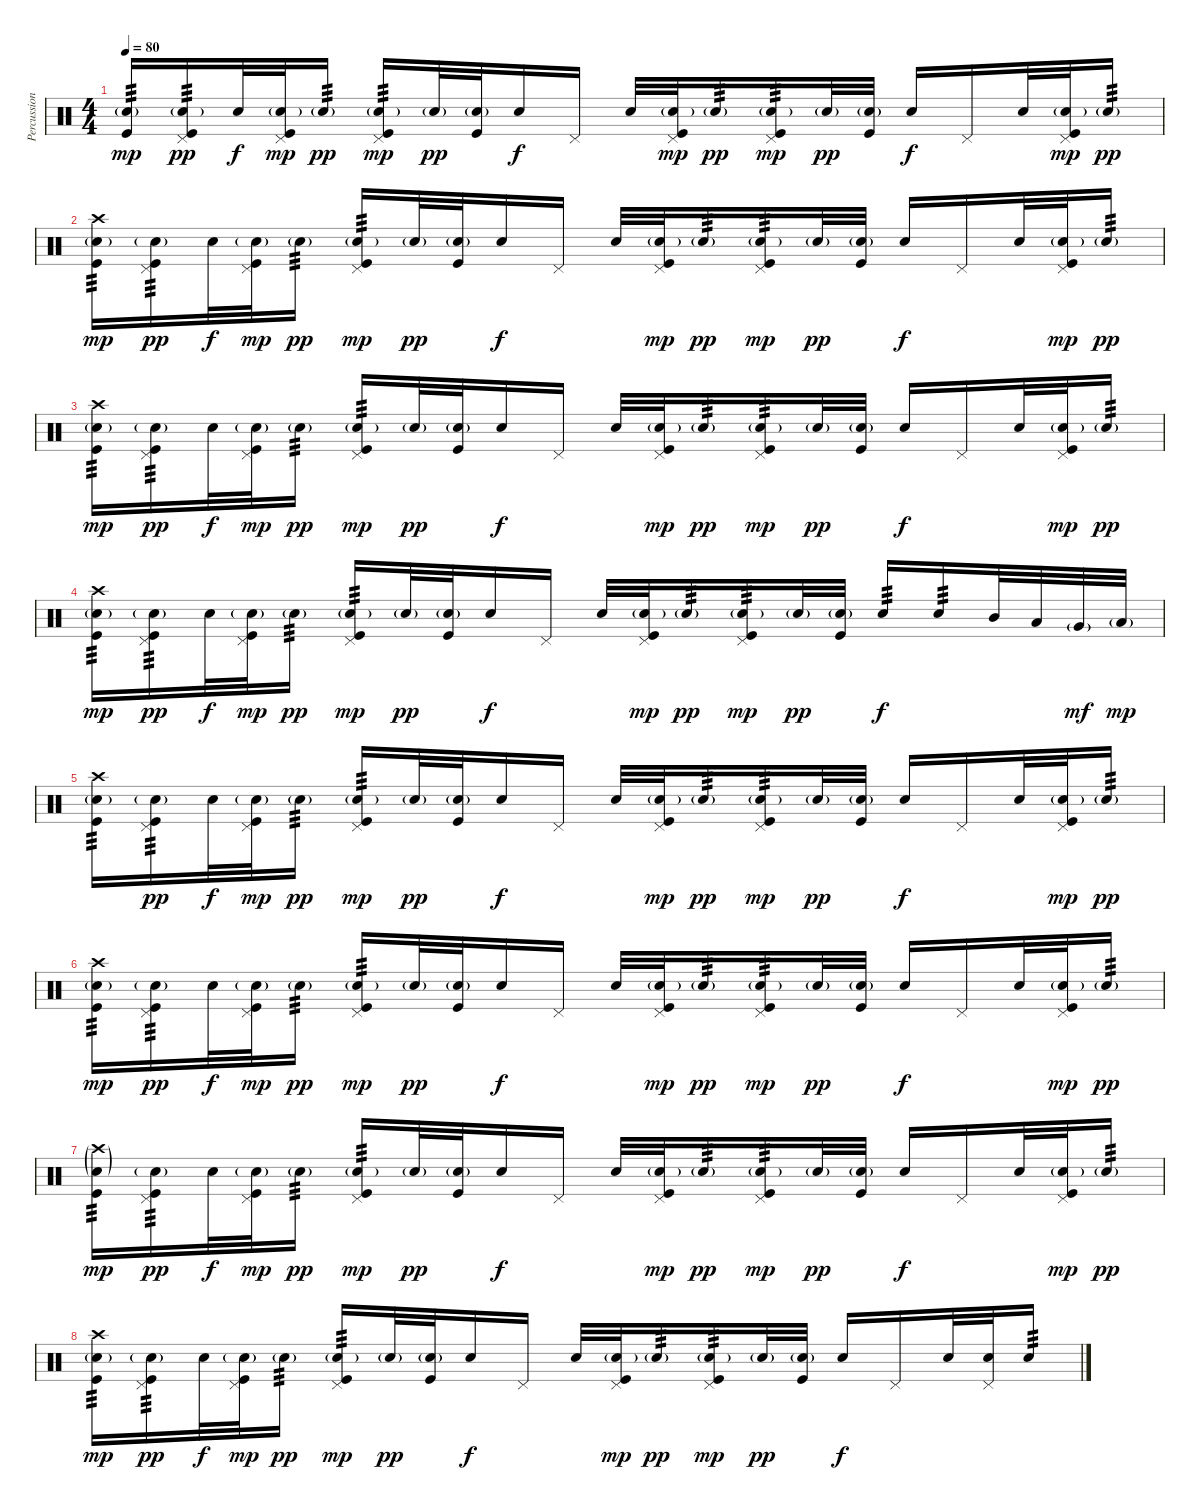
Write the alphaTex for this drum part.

\track ("Percussion" "Percussion") {instrument percussion}
\staff {score}
\articulation defaults
\ts (4 4)
\tempo 80
\clef neutral
\ks c
("Snare (hit) 2"{g} "Kick (hit)").16{tp 3 dy mp} ("Pedal Hi-Hat (hit)" "Snare (hit) 2"{g} "Kick (hit)").16{tp 3 dy pp} "Snare (hit) 2".32{dy f} ("Pedal Hi-Hat (hit)" "Snare (hit) 2"{g} "Kick (hit)").32{dy mp} "Snare (hit) 2"{g}.16{tp 3 dy pp} ("Pedal Hi-Hat (hit)" "Snare (hit) 2"{g} "Kick (hit)").16{tp 3 dy mp} "Snare (hit) 2"{g}.32{dy pp} ("Snare (hit) 2"{g} "Kick (hit)").32 "Snare (hit) 2".16{dy f} "Pedal Hi-Hat (hit)".16 "Snare (hit) 2".32 ("Pedal Hi-Hat (hit)" "Snare (hit) 2"{g} "Kick (hit)").32{dy mp} "Snare (hit) 2"{g}.16{tp 3 dy pp} ("Pedal Hi-Hat (hit)" "Snare (hit) 2"{g} "Kick (hit)").16{tp 3 dy mp} "Snare (hit) 2"{g}.32{dy pp} ("Snare (hit) 2"{g} "Kick (hit)").32 "Snare (hit) 2".16{dy f} "Pedal Hi-Hat (hit)".16 "Snare (hit) 2".32 ("Pedal Hi-Hat (hit)" "Snare (hit) 2"{g} "Kick (hit)").32{dy mp} "Snare (hit) 2"{g}.16{tp 3 dy pp} |
("Crash high (hit)" "Snare (hit) 2"{g} "Kick (hit)").16{tp 3 dy mp} ("Pedal Hi-Hat (hit)" "Snare (hit) 2"{g} "Kick (hit)").16{tp 3 dy pp} "Snare (hit) 2".32{dy f} ("Pedal Hi-Hat (hit)" "Snare (hit) 2"{g} "Kick (hit)").32{dy mp} "Snare (hit) 2"{g}.16{tp 3 dy pp} ("Pedal Hi-Hat (hit)" "Snare (hit) 2"{g} "Kick (hit)").16{tp 3 dy mp} "Snare (hit) 2"{g}.32{dy pp} ("Snare (hit) 2"{g} "Kick (hit)").32 "Snare (hit) 2".16{dy f} "Pedal Hi-Hat (hit)".16 "Snare (hit) 2".32 ("Pedal Hi-Hat (hit)" "Snare (hit) 2"{g} "Kick (hit)").32{dy mp} "Snare (hit) 2"{g}.16{tp 3 dy pp} ("Pedal Hi-Hat (hit)" "Snare (hit) 2"{g} "Kick (hit)").16{tp 3 dy mp} "Snare (hit) 2"{g}.32{dy pp} ("Snare (hit) 2"{g} "Kick (hit)").32 "Snare (hit) 2".16{dy f} "Pedal Hi-Hat (hit)".16 "Snare (hit) 2".32 ("Pedal Hi-Hat (hit)" "Snare (hit) 2"{g} "Kick (hit)").32{dy mp} "Snare (hit) 2"{g}.16{tp 3 dy pp} |
("Crash high (hit)" "Snare (hit) 2"{g} "Kick (hit)").16{tp 3 dy mp} ("Pedal Hi-Hat (hit)" "Snare (hit) 2"{g} "Kick (hit)").16{tp 3 dy pp} "Snare (hit) 2".32{dy f} ("Pedal Hi-Hat (hit)" "Snare (hit) 2"{g} "Kick (hit)").32{dy mp} "Snare (hit) 2"{g}.16{tp 3 dy pp} ("Pedal Hi-Hat (hit)" "Snare (hit) 2"{g} "Kick (hit)").16{tp 3 dy mp} "Snare (hit) 2"{g}.32{dy pp} ("Snare (hit) 2"{g} "Kick (hit)").32 "Snare (hit) 2".16{dy f} "Pedal Hi-Hat (hit)".16 "Snare (hit) 2".32 ("Pedal Hi-Hat (hit)" "Snare (hit) 2"{g} "Kick (hit)").32{dy mp} "Snare (hit) 2"{g}.16{tp 3 dy pp} ("Pedal Hi-Hat (hit)" "Snare (hit) 2"{g} "Kick (hit)").16{tp 3 dy mp} "Snare (hit) 2"{g}.32{dy pp} ("Snare (hit) 2"{g} "Kick (hit)").32 "Snare (hit) 2".16{dy f} "Pedal Hi-Hat (hit)".16 "Snare (hit) 2".32 ("Pedal Hi-Hat (hit)" "Snare (hit) 2"{g} "Kick (hit)").32{dy mp} "Snare (hit) 2"{g}.16{tp 3 dy pp} |
("Crash high (hit)" "Snare (hit) 2"{g} "Kick (hit)").16{tp 3 dy mp} ("Pedal Hi-Hat (hit)" "Snare (hit) 2"{g} "Kick (hit)").16{tp 3 dy pp} "Snare (hit) 2".32{dy f} ("Pedal Hi-Hat (hit)" "Snare (hit) 2"{g} "Kick (hit)").32{dy mp} "Snare (hit) 2"{g}.16{tp 3 dy pp} ("Pedal Hi-Hat (hit)" "Snare (hit) 2"{g} "Kick (hit)").16{tp 3 dy mp} "Snare (hit) 2"{g}.32{dy pp} ("Snare (hit) 2"{g} "Kick (hit)").32 "Snare (hit) 2".16{dy f} "Pedal Hi-Hat (hit)".16 "Snare (hit) 2".32 ("Pedal Hi-Hat (hit)" "Snare (hit) 2"{g} "Kick (hit)").32{dy mp} "Snare (hit) 2"{g}.16{tp 3 dy pp} ("Pedal Hi-Hat (hit)" "Snare (hit) 2"{g} "Kick (hit)").16{tp 3 dy mp} "Snare (hit) 2"{g}.32{dy pp} ("Snare (hit) 2"{g} "Kick (hit)").32 "Snare (hit) 2".16{tp 3 dy f} "Snare (hit) 2".16{tp 3} "Mid Tom (hit)".32 "Low Tom (hit)".32 "Very Low Tom (hit)"{g}.32{dy mf} "Low Floor Tom (hit)"{g}.32{dy mp} |
("Crash high (hit)" "Snare (hit) 2"{g} "Kick (hit)").16{tp 3} ("Pedal Hi-Hat (hit)" "Snare (hit) 2"{g} "Kick (hit)").16{tp 3 dy pp} "Snare (hit) 2".32{dy f} ("Pedal Hi-Hat (hit)" "Snare (hit) 2"{g} "Kick (hit)").32{dy mp} "Snare (hit) 2"{g}.16{tp 3 dy pp} ("Pedal Hi-Hat (hit)" "Snare (hit) 2"{g} "Kick (hit)").16{tp 3 dy mp} "Snare (hit) 2"{g}.32{dy pp} ("Snare (hit) 2"{g} "Kick (hit)").32 "Snare (hit) 2".16{dy f} "Pedal Hi-Hat (hit)".16 "Snare (hit) 2".32 ("Pedal Hi-Hat (hit)" "Snare (hit) 2"{g} "Kick (hit)").32{dy mp} "Snare (hit) 2"{g}.16{tp 3 dy pp} ("Pedal Hi-Hat (hit)" "Snare (hit) 2"{g} "Kick (hit)").16{tp 3 dy mp} "Snare (hit) 2"{g}.32{dy pp} ("Snare (hit) 2"{g} "Kick (hit)").32 "Snare (hit) 2".16{dy f} "Pedal Hi-Hat (hit)".16 "Snare (hit) 2".32 ("Pedal Hi-Hat (hit)" "Snare (hit) 2"{g} "Kick (hit)").32{dy mp} "Snare (hit) 2"{g}.16{tp 3 dy pp} |
("Crash high (hit)" "Snare (hit) 2"{g} "Kick (hit)").16{tp 3 dy mp} ("Pedal Hi-Hat (hit)" "Snare (hit) 2"{g} "Kick (hit)").16{tp 3 dy pp} "Snare (hit) 2".32{dy f} ("Pedal Hi-Hat (hit)" "Snare (hit) 2"{g} "Kick (hit)").32{dy mp} "Snare (hit) 2"{g}.16{tp 3 dy pp} ("Pedal Hi-Hat (hit)" "Snare (hit) 2"{g} "Kick (hit)").16{tp 3 dy mp} "Snare (hit) 2"{g}.32{dy pp} ("Snare (hit) 2"{g} "Kick (hit)").32 "Snare (hit) 2".16{dy f} "Pedal Hi-Hat (hit)".16 "Snare (hit) 2".32 ("Pedal Hi-Hat (hit)" "Snare (hit) 2"{g} "Kick (hit)").32{dy mp} "Snare (hit) 2"{g}.16{tp 3 dy pp} ("Pedal Hi-Hat (hit)" "Snare (hit) 2"{g} "Kick (hit)").16{tp 3 dy mp} "Snare (hit) 2"{g}.32{dy pp} ("Snare (hit) 2"{g} "Kick (hit)").32 "Snare (hit) 2".16{dy f} "Pedal Hi-Hat (hit)".16 "Snare (hit) 2".32 ("Pedal Hi-Hat (hit)" "Snare (hit) 2"{g} "Kick (hit)").32{dy mp} "Snare (hit) 2"{g}.16{tp 3 dy pp} |
("Crash high (hit)"{g} "Snare (hit) 2"{g} "Kick (hit)").16{tp 3 dy mp} ("Pedal Hi-Hat (hit)" "Snare (hit) 2"{g} "Kick (hit)").16{tp 3 dy pp} "Snare (hit) 2".32{dy f} ("Pedal Hi-Hat (hit)" "Snare (hit) 2"{g} "Kick (hit)").32{dy mp} "Snare (hit) 2"{g}.16{tp 3 dy pp} ("Pedal Hi-Hat (hit)" "Snare (hit) 2"{g} "Kick (hit)").16{tp 3 dy mp} "Snare (hit) 2"{g}.32{dy pp} ("Snare (hit) 2"{g} "Kick (hit)").32 "Snare (hit) 2".16{dy f} "Pedal Hi-Hat (hit)".16 "Snare (hit) 2".32 ("Pedal Hi-Hat (hit)" "Snare (hit) 2"{g} "Kick (hit)").32{dy mp} "Snare (hit) 2"{g}.16{tp 3 dy pp} ("Pedal Hi-Hat (hit)" "Snare (hit) 2"{g} "Kick (hit)").16{tp 3 dy mp} "Snare (hit) 2"{g}.32{dy pp} ("Snare (hit) 2"{g} "Kick (hit)").32 "Snare (hit) 2".16{dy f} "Pedal Hi-Hat (hit)".16 "Snare (hit) 2".32 ("Pedal Hi-Hat (hit)" "Snare (hit) 2"{g} "Kick (hit)").32{dy mp} "Snare (hit) 2"{g}.16{tp 3 dy pp} |
("Crash high (hit)" "Snare (hit) 2"{g} "Kick (hit)").16{tp 3 dy mp} ("Pedal Hi-Hat (hit)" "Snare (hit) 2"{g} "Kick (hit)").16{tp 3 dy pp} "Snare (hit) 2".32{dy f} ("Pedal Hi-Hat (hit)" "Snare (hit) 2"{g} "Kick (hit)").32{dy mp} "Snare (hit) 2"{g}.16{tp 3 dy pp} ("Pedal Hi-Hat (hit)" "Snare (hit) 2"{g} "Kick (hit)").16{tp 3 dy mp} "Snare (hit) 2"{g}.32{dy pp} ("Snare (hit) 2"{g} "Kick (hit)").32 "Snare (hit) 2".16{dy f} "Pedal Hi-Hat (hit)".16 "Snare (hit) 2".32 ("Pedal Hi-Hat (hit)" "Snare (hit) 2"{g} "Kick (hit)").32{dy mp} "Snare (hit) 2"{g}.16{tp 3 dy pp} ("Pedal Hi-Hat (hit)" "Snare (hit) 2"{g} "Kick (hit)").16{tp 3 dy mp} "Snare (hit) 2"{g}.32{dy pp} ("Snare (hit) 2"{g} "Kick (hit)").32 "Snare (hit) 2".16{dy f} "Pedal Hi-Hat (hit)".16 "Snare (hit) 2".32 ("Pedal Hi-Hat (hit)" "Snare (hit) 2").32 "Snare (hit) 2".16{tp 3}
